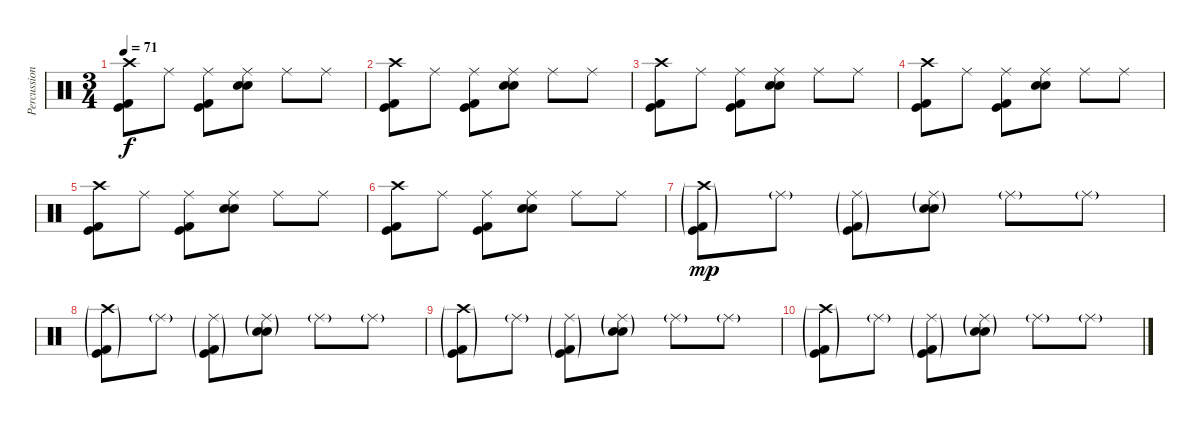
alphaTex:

\track ("Percussion" "Percussion") {instrument percussion}
\staff {score}
\articulation defaults
\ts (3 4)
\tempo 71
\clef neutral
\ks c
("Kick (hit)" "Kick (hit) 2" "Crash high (hit)").8{dy f} "Ride (middle)".8 ("Kick (hit) 2" "Kick (hit)" "Ride (middle)").8 ("Ride (middle)" "Electric Snare (hit)" "Snare (hit) 2").8 "Ride (middle)".8 "Ride (middle)".8 |
("Kick (hit)" "Kick (hit) 2" "Crash high (hit)").8 "Ride (middle)".8 ("Kick (hit) 2" "Kick (hit)" "Ride (middle)").8 ("Ride (middle)" "Electric Snare (hit)" "Snare (hit) 2").8 "Ride (middle)".8 "Ride (middle)".8 |
("Kick (hit)" "Kick (hit) 2" "Crash high (hit)").8 "Ride (middle)".8 ("Kick (hit) 2" "Kick (hit)" "Ride (middle)").8 ("Ride (middle)" "Electric Snare (hit)" "Snare (hit) 2").8 "Ride (middle)".8 "Ride (middle)".8 |
("Kick (hit)" "Kick (hit) 2" "Crash high (hit)").8 "Ride (middle)".8 ("Kick (hit) 2" "Kick (hit)" "Ride (middle)").8 ("Ride (middle)" "Electric Snare (hit)" "Snare (hit) 2").8 "Ride (middle)".8 "Ride (middle)".8 |
("Kick (hit)" "Kick (hit) 2" "Crash high (hit)").8 "Ride (middle)".8 ("Kick (hit) 2" "Kick (hit)" "Ride (middle)").8 ("Ride (middle)" "Electric Snare (hit)" "Snare (hit) 2").8 "Ride (middle)".8 "Ride (middle)".8 |
("Kick (hit)" "Kick (hit) 2" "Crash high (hit)").8 "Ride (middle)".8 ("Kick (hit) 2" "Kick (hit)" "Ride (middle)").8 ("Ride (middle)" "Electric Snare (hit)" "Snare (hit) 2").8 "Ride (middle)".8 "Ride (middle)".8 |
("Kick (hit)"{g} "Kick (hit) 2"{g} "Crash high (hit)"{g}).8{dy mp} "Ride (middle)"{g}.8 ("Kick (hit) 2"{g} "Kick (hit)"{g} "Ride (middle)"{g}).8 ("Ride (middle)"{g} "Electric Snare (hit)"{g} "Snare (hit) 2"{g}).8 "Ride (middle)"{g}.8 "Ride (middle)"{g}.8 |
("Kick (hit)"{g} "Kick (hit) 2"{g} "Crash high (hit)"{g}).8 "Ride (middle)"{g}.8 ("Kick (hit) 2"{g} "Kick (hit)"{g} "Ride (middle)"{g}).8 ("Ride (middle)"{g} "Electric Snare (hit)"{g} "Snare (hit) 2"{g}).8 "Ride (middle)"{g}.8 "Ride (middle)"{g}.8 |
("Kick (hit)"{g} "Kick (hit) 2"{g} "Crash high (hit)"{g}).8 "Ride (middle)"{g}.8 ("Kick (hit) 2"{g} "Kick (hit)"{g} "Ride (middle)"{g}).8 ("Ride (middle)"{g} "Electric Snare (hit)"{g} "Snare (hit) 2"{g}).8 "Ride (middle)"{g}.8 "Ride (middle)"{g}.8 |
("Kick (hit)"{g} "Kick (hit) 2"{g} "Crash high (hit)"{g}).8 "Ride (middle)"{g}.8 ("Kick (hit) 2"{g} "Kick (hit)"{g} "Ride (middle)"{g}).8 ("Ride (middle)"{g} "Electric Snare (hit)"{g} "Snare (hit) 2"{g}).8 "Ride (middle)"{g}.8 "Ride (middle)"{g}.8
